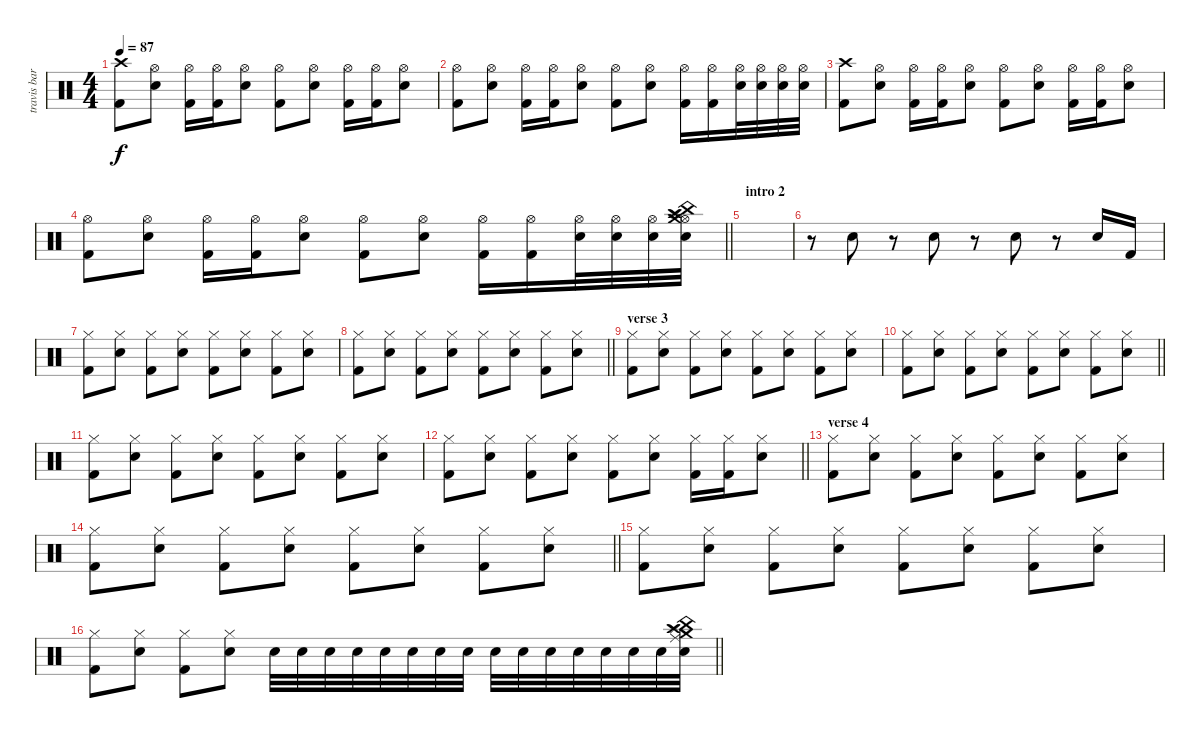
\track ("travis barker" "travis bar") {instrument percussion}
\staff {score}
\articulation defaults
\ts (4 4)
\tempo 87
\clef neutral
\ks c
("Crash high (hit)" "Kick (hit) 2").8{dy f} ("Hi-Hat (open)" "Snare (hit) 2").8 ("Hi-Hat (open)" "Kick (hit) 2").16 ("Hi-Hat (open)" "Kick (hit) 2").16 ("Hi-Hat (open)" "Snare (hit) 2").8 ("Hi-Hat (open)" "Kick (hit) 2").8 ("Hi-Hat (open)" "Snare (hit) 2").8 ("Hi-Hat (open)" "Kick (hit) 2").16 ("Hi-Hat (open)" "Kick (hit) 2").16 ("Hi-Hat (open)" "Snare (hit) 2").8 |
("Hi-Hat (open)" "Kick (hit) 2").8 ("Hi-Hat (open)" "Snare (hit) 2").8 ("Hi-Hat (open)" "Kick (hit) 2").16 ("Hi-Hat (open)" "Kick (hit) 2").16 ("Hi-Hat (open)" "Snare (hit) 2").8 ("Hi-Hat (open)" "Kick (hit) 2").8 ("Hi-Hat (open)" "Snare (hit) 2").8 ("Hi-Hat (open)" "Kick (hit) 2").16 ("Hi-Hat (open)" "Kick (hit) 2").16 ("Hi-Hat (open)" "Snare (hit) 2").32 ("Hi-Hat (open)" "Snare (hit) 2").32 ("Hi-Hat (open)" "Snare (hit) 2").32 ("Hi-Hat (open)" "Snare (hit) 2").32 |
("Crash high (hit)" "Kick (hit) 2").8 ("Hi-Hat (open)" "Snare (hit) 2").8 ("Hi-Hat (open)" "Kick (hit) 2").16 ("Hi-Hat (open)" "Kick (hit) 2").16 ("Hi-Hat (open)" "Snare (hit) 2").8 ("Hi-Hat (open)" "Kick (hit) 2").8 ("Hi-Hat (open)" "Snare (hit) 2").8 ("Hi-Hat (open)" "Kick (hit) 2").16 ("Hi-Hat (open)" "Kick (hit) 2").16 ("Hi-Hat (open)" "Snare (hit) 2").8 |
\barLineRight lightlight
("Hi-Hat (open)" "Kick (hit) 2").8 ("Hi-Hat (open)" "Snare (hit) 2").8 ("Hi-Hat (open)" "Kick (hit) 2").16 ("Hi-Hat (open)" "Kick (hit) 2").16 ("Hi-Hat (open)" "Snare (hit) 2").8 ("Hi-Hat (open)" "Kick (hit) 2").8 ("Hi-Hat (open)" "Snare (hit) 2").8 ("Hi-Hat (open)" "Kick (hit) 2").16 ("Hi-Hat (open)" "Kick (hit) 2").16 ("Hi-Hat (open)" "Snare (hit) 2").32 ("Hi-Hat (open)" "Snare (hit) 2").32 ("Hi-Hat (open)" "Snare (hit) 2").32 ("Hi-Hat (open)" "China (hit)" "Crash high (hit)" "Snare (hit) 2" "Crash medium (hit)" "Splash (hit)").32 |
\section ("" "intro 2")
|
r.8 "Snare (hit) 2".8 r.8 "Snare (hit) 2".8 r.8 "Snare (hit) 2".8 r.8 "Snare (hit) 2".16 "Kick (hit) 2".16 |
("Hi-Hat (closed)" "Kick (hit) 2").8 ("Hi-Hat (closed)" "Snare (hit) 2").8 ("Hi-Hat (closed)" "Kick (hit) 2").8 ("Hi-Hat (closed)" "Snare (hit) 2").8 ("Hi-Hat (closed)" "Kick (hit) 2").8 ("Hi-Hat (closed)" "Snare (hit) 2").8 ("Hi-Hat (closed)" "Kick (hit) 2").8 ("Hi-Hat (closed)" "Snare (hit) 2").8 |
\barLineRight lightlight
("Hi-Hat (closed)" "Kick (hit) 2").8 ("Hi-Hat (closed)" "Snare (hit) 2").8 ("Hi-Hat (closed)" "Kick (hit) 2").8 ("Hi-Hat (closed)" "Snare (hit) 2").8 ("Hi-Hat (closed)" "Kick (hit) 2").8 ("Hi-Hat (closed)" "Snare (hit) 2").8 ("Hi-Hat (closed)" "Kick (hit) 2").8 ("Hi-Hat (closed)" "Snare (hit) 2").8 |
\section ("" "verse 3")
("Hi-Hat (closed)" "Kick (hit) 2").8 ("Hi-Hat (closed)" "Snare (hit) 2").8 ("Hi-Hat (closed)" "Kick (hit) 2").8 ("Hi-Hat (closed)" "Snare (hit) 2").8 ("Hi-Hat (closed)" "Kick (hit) 2").8 ("Hi-Hat (closed)" "Snare (hit) 2").8 ("Hi-Hat (closed)" "Kick (hit) 2").8 ("Hi-Hat (closed)" "Snare (hit) 2").8 |
\barLineRight lightlight
("Hi-Hat (closed)" "Kick (hit) 2").8 ("Hi-Hat (closed)" "Snare (hit) 2").8 ("Hi-Hat (closed)" "Kick (hit) 2").8 ("Hi-Hat (closed)" "Snare (hit) 2").8 ("Hi-Hat (closed)" "Kick (hit) 2").8 ("Hi-Hat (closed)" "Snare (hit) 2").8 ("Hi-Hat (closed)" "Kick (hit) 2").8 ("Hi-Hat (closed)" "Snare (hit) 2").8 |
("Hi-Hat (closed)" "Kick (hit) 2").8 ("Hi-Hat (closed)" "Snare (hit) 2").8 ("Hi-Hat (closed)" "Kick (hit) 2").8 ("Hi-Hat (closed)" "Snare (hit) 2").8 ("Hi-Hat (closed)" "Kick (hit) 2").8 ("Hi-Hat (closed)" "Snare (hit) 2").8 ("Hi-Hat (closed)" "Kick (hit) 2").8 ("Hi-Hat (closed)" "Snare (hit) 2").8 |
\barLineRight lightlight
("Hi-Hat (closed)" "Kick (hit) 2").8 ("Hi-Hat (closed)" "Snare (hit) 2").8 ("Hi-Hat (closed)" "Kick (hit) 2").8 ("Hi-Hat (closed)" "Snare (hit) 2").8 ("Hi-Hat (closed)" "Kick (hit) 2").8 ("Hi-Hat (closed)" "Snare (hit) 2").8 ("Hi-Hat (closed)" "Kick (hit) 2").16 ("Hi-Hat (closed)" "Kick (hit) 2").16 ("Hi-Hat (closed)" "Snare (hit) 2").8 |
\section ("" "verse 4")
("Hi-Hat (closed)" "Kick (hit) 2").8 ("Hi-Hat (closed)" "Snare (hit) 2").8 ("Hi-Hat (closed)" "Kick (hit) 2").8 ("Hi-Hat (closed)" "Snare (hit) 2").8 ("Hi-Hat (closed)" "Kick (hit) 2").8 ("Hi-Hat (closed)" "Snare (hit) 2").8 ("Hi-Hat (closed)" "Kick (hit) 2").8 ("Hi-Hat (closed)" "Snare (hit) 2").8 |
\barLineRight lightlight
("Hi-Hat (closed)" "Kick (hit) 2").8 ("Hi-Hat (closed)" "Snare (hit) 2").8 ("Hi-Hat (closed)" "Kick (hit) 2").8 ("Hi-Hat (closed)" "Snare (hit) 2").8 ("Hi-Hat (closed)" "Kick (hit) 2").8 ("Hi-Hat (closed)" "Snare (hit) 2").8 ("Hi-Hat (closed)" "Kick (hit) 2").8 ("Hi-Hat (closed)" "Snare (hit) 2").8 |
("Hi-Hat (closed)" "Kick (hit) 2").8 ("Hi-Hat (closed)" "Snare (hit) 2").8 ("Hi-Hat (closed)" "Kick (hit) 2").8 ("Hi-Hat (closed)" "Snare (hit) 2").8 ("Hi-Hat (closed)" "Kick (hit) 2").8 ("Hi-Hat (closed)" "Snare (hit) 2").8 ("Hi-Hat (closed)" "Kick (hit) 2").8 ("Hi-Hat (closed)" "Snare (hit) 2").8 |
\barLineRight lightlight
("Hi-Hat (closed)" "Kick (hit) 2").8 ("Hi-Hat (closed)" "Snare (hit) 2").8 ("Hi-Hat (closed)" "Kick (hit) 2").8 ("Hi-Hat (closed)" "Snare (hit) 2").8 "Snare (hit) 2".32 "Snare (hit) 2".32 "Snare (hit) 2".32 "Snare (hit) 2".32 "Snare (hit) 2".32 "Snare (hit) 2".32 "Snare (hit) 2".32 "Snare (hit) 2".32 "Snare (hit) 2".32 "Snare (hit) 2".32 "Snare (hit) 2".32 "Snare (hit) 2".32 "Snare (hit) 2".32 "Snare (hit) 2".32 "Snare (hit) 2".32 ("Crash medium (hit)" "Ride (middle)" "China (hit)" "Snare (hit) 2" "Splash (hit)" "Crash high (hit)").32
